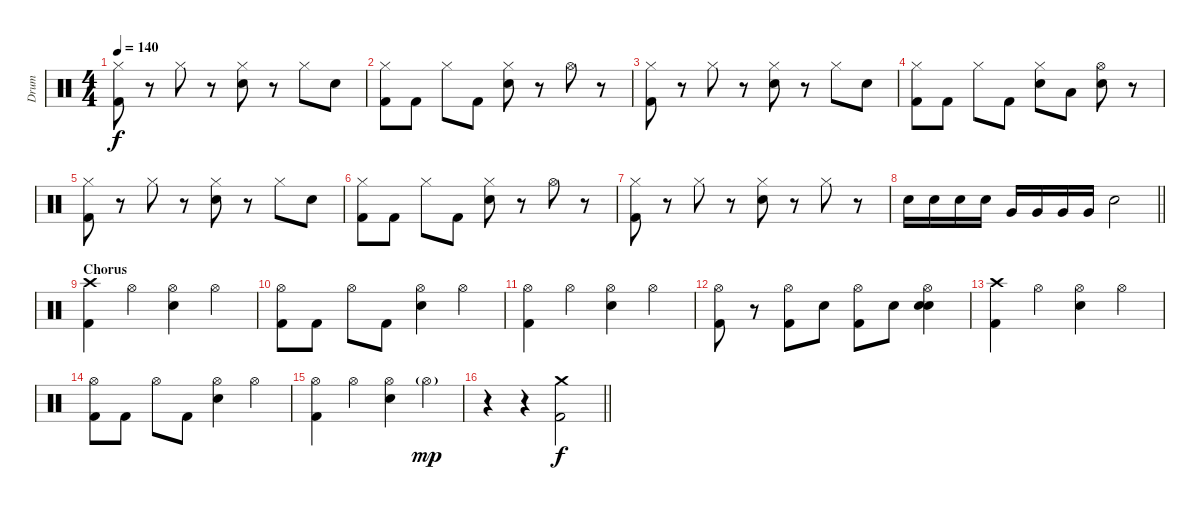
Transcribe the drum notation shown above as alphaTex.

\track ("Drum" "Drum") {instrument percussion}
\staff {score}
\articulation defaults
\ts (4 4)
\tempo 140
\clef neutral
\ks c
("Hi-Hat (closed)" "Kick (hit) 2").8{dy f} r.8 "Hi-Hat (closed)".8 r.8 ("Hi-Hat (closed)" "Electric Snare (hit)").8 r.8 "Hi-Hat (closed)".8 "Electric Snare (hit)".8 |
("Hi-Hat (closed)" "Kick (hit) 2").8 "Kick (hit) 2".8 "Hi-Hat (closed)".8 "Kick (hit) 2".8 ("Hi-Hat (closed)" "Electric Snare (hit)").8 r.8 "Hi-Hat (open)".8 r.8 |
("Hi-Hat (closed)" "Kick (hit) 2").8 r.8 "Hi-Hat (closed)".8 r.8 ("Hi-Hat (closed)" "Electric Snare (hit)").8 r.8 "Hi-Hat (closed)".8 "Electric Snare (hit)".8 |
("Hi-Hat (closed)" "Kick (hit) 2").8 "Kick (hit) 2".8 "Hi-Hat (closed)".8 "Kick (hit) 2".8 ("Hi-Hat (closed)" "Electric Snare (hit)").8 "Low Tom (hit)".8 ("Hi-Hat (open)" "Electric Snare (hit)").8 r.8 |
("Hi-Hat (closed)" "Kick (hit) 2").8 r.8 "Hi-Hat (closed)".8 r.8 ("Hi-Hat (closed)" "Electric Snare (hit)").8 r.8 "Hi-Hat (closed)".8 "Electric Snare (hit)".8 |
("Hi-Hat (closed)" "Kick (hit) 2").8 "Kick (hit) 2".8 "Hi-Hat (closed)".8 "Kick (hit) 2".8 ("Hi-Hat (closed)" "Electric Snare (hit)").8 r.8 "Hi-Hat (open)".8 r.8 |
("Hi-Hat (closed)" "Kick (hit) 2").8 r.8 "Hi-Hat (closed)".8 r.8 ("Hi-Hat (closed)" "Electric Snare (hit)").8 r.8 "Hi-Hat (closed)".8 r.8 |
\barLineRight lightlight "Electric Snare (hit)".16 "Electric Snare (hit)".16 "Electric Snare (hit)".16 "Electric Snare (hit)".16 "Very Low Tom (hit)".16 "Very Low Tom (hit)".16 "Very Low Tom (hit)".16 "Very Low Tom (hit)".16 "Electric Snare (hit)".2
|
\section ("" "Chorus")
("Crash high (hit)" "Kick (hit) 2").4 "Hi-Hat (open)".4 ("Hi-Hat (open)" "Electric Snare (hit)").4 "Hi-Hat (open)".4 |
("Hi-Hat (open)" "Kick (hit) 2").8 "Kick (hit) 2".8 "Hi-Hat (open)".8 "Kick (hit) 2".8 ("Hi-Hat (open)" "Electric Snare (hit)").4 "Hi-Hat (open)".4 |
("Hi-Hat (open)" "Kick (hit) 2").4 "Hi-Hat (open)".4 ("Hi-Hat (open)" "Electric Snare (hit)").4 "Hi-Hat (open)".4 |
("Hi-Hat (open)" "Kick (hit) 2").8 r.8 ("Hi-Hat (open)" "Kick (hit) 2").8 "Electric Snare (hit)".8 ("Hi-Hat (open)" "Kick (hit) 2").8 "Electric Snare (hit)".8 ("Hi-Hat (open)" "Electric Snare (hit)" "Electric Snare (hit)").4 |
("Crash high (hit)" "Kick (hit) 2").4 "Hi-Hat (open)".4 ("Hi-Hat (open)" "Electric Snare (hit)").4 "Hi-Hat (open)".4 |
("Hi-Hat (open)" "Kick (hit) 2").8 "Kick (hit) 2".8 "Hi-Hat (open)".8 "Kick (hit) 2".8 ("Hi-Hat (open)" "Electric Snare (hit)").4 "Hi-Hat (open)".4 |
("Hi-Hat (open)" "Kick (hit) 2").4 "Hi-Hat (open)".4 ("Hi-Hat (open)" "Electric Snare (hit)").4 "Hi-Hat (open)"{g}.4{dy mp} |
\barLineRight lightlight
r.4 r.4 ("Crash medium (hit)" "Kick (hit) 2").2{dy f}
